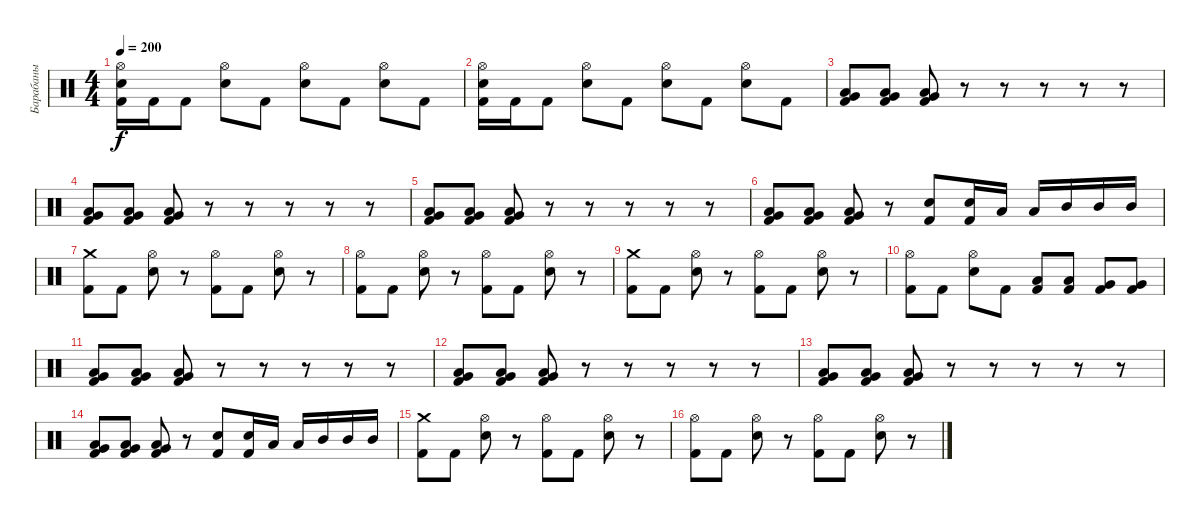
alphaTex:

\track ("Барабаны" "Барабаны") {instrument percussion}
\staff {score}
\articulation defaults
\ts (4 4)
\tempo 200
\clef neutral
\ks c
("Hi-Hat (open)" "Electric Snare (hit)" "Kick (hit) 2").16{dy f} "Kick (hit) 2".16 "Kick (hit) 2".8 ("Hi-Hat (open)" "Electric Snare (hit)").8 "Kick (hit) 2".8 ("Hi-Hat (open)" "Electric Snare (hit)").8 "Kick (hit) 2".8 ("Hi-Hat (open)" "Electric Snare (hit)").8 "Kick (hit) 2".8 |
("Hi-Hat (open)" "Electric Snare (hit)" "Kick (hit) 2").16 "Kick (hit) 2".16 "Kick (hit) 2".8 ("Hi-Hat (open)" "Electric Snare (hit)").8 "Kick (hit) 2".8 ("Hi-Hat (open)" "Electric Snare (hit)").8 "Kick (hit) 2".8 ("Hi-Hat (open)" "Electric Snare (hit)").8 "Kick (hit) 2".8 |
("Very Low Tom (hit)" "Low Tom (hit)" "Kick (hit) 2").8 ("Very Low Tom (hit)" "Low Tom (hit)" "Kick (hit) 2").8 ("Very Low Tom (hit)" "Low Tom (hit)" "Kick (hit) 2").8 r.8 r.8 r.8 r.8 r.8 |
("Very Low Tom (hit)" "Low Tom (hit)" "Kick (hit) 2").8 ("Very Low Tom (hit)" "Low Tom (hit)" "Kick (hit) 2").8 ("Very Low Tom (hit)" "Low Tom (hit)" "Kick (hit) 2").8 r.8 r.8 r.8 r.8 r.8 |
("Very Low Tom (hit)" "Low Tom (hit)" "Kick (hit) 2").8 ("Very Low Tom (hit)" "Low Tom (hit)" "Kick (hit) 2").8 ("Very Low Tom (hit)" "Low Tom (hit)" "Kick (hit) 2").8 r.8 r.8 r.8 r.8 r.8 |
("Very Low Tom (hit)" "Low Tom (hit)" "Kick (hit) 2").8 ("Very Low Tom (hit)" "Low Tom (hit)" "Kick (hit) 2").8 ("Very Low Tom (hit)" "Low Tom (hit)" "Kick (hit) 2").8 r.8 ("Electric Snare (hit)" "Kick (hit) 2").8 ("Electric Snare (hit)" "Kick (hit) 2").16 "Low Tom (hit)".16 "Low Tom (hit)".16 "Mid Tom (hit)".16 "Mid Tom (hit)".16 "Mid Tom (hit)".16 |
("Crash medium (hit)" "Kick (hit) 2").8 "Kick (hit) 2".8 ("Hi-Hat (open)" "Electric Snare (hit)").8 r.8 ("Hi-Hat (open)" "Kick (hit) 2").8 "Kick (hit) 2".8 ("Hi-Hat (open)" "Electric Snare (hit)").8 r.8 |
("Hi-Hat (open)" "Kick (hit) 2").8 "Kick (hit) 2".8 ("Hi-Hat (open)" "Electric Snare (hit)").8 r.8 ("Hi-Hat (open)" "Kick (hit) 2").8 "Kick (hit) 2".8 ("Hi-Hat (open)" "Electric Snare (hit)").8 r.8 |
("Crash medium (hit)" "Kick (hit) 2").8 "Kick (hit) 2".8 ("Hi-Hat (open)" "Electric Snare (hit)").8 r.8 ("Hi-Hat (open)" "Kick (hit) 2").8 "Kick (hit) 2".8 ("Hi-Hat (open)" "Electric Snare (hit)").8 r.8 |
("Hi-Hat (open)" "Kick (hit) 2").8 "Kick (hit) 2".8 ("Hi-Hat (open)" "Electric Snare (hit)").8 "Kick (hit) 2".8 ("Low Tom (hit)" "Kick (hit) 2").8 ("Low Tom (hit)" "Kick (hit) 2").8 ("Very Low Tom (hit)" "Kick (hit) 2").8 ("Very Low Tom (hit)" "Kick (hit) 2").8 |
("Very Low Tom (hit)" "Low Tom (hit)" "Kick (hit) 2").8 ("Very Low Tom (hit)" "Low Tom (hit)" "Kick (hit) 2").8 ("Very Low Tom (hit)" "Low Tom (hit)" "Kick (hit) 2").8 r.8 r.8 r.8 r.8 r.8 |
("Very Low Tom (hit)" "Low Tom (hit)" "Kick (hit) 2").8 ("Very Low Tom (hit)" "Low Tom (hit)" "Kick (hit) 2").8 ("Very Low Tom (hit)" "Low Tom (hit)" "Kick (hit) 2").8 r.8 r.8 r.8 r.8 r.8 |
("Very Low Tom (hit)" "Low Tom (hit)" "Kick (hit) 2").8 ("Very Low Tom (hit)" "Low Tom (hit)" "Kick (hit) 2").8 ("Very Low Tom (hit)" "Low Tom (hit)" "Kick (hit) 2").8 r.8 r.8 r.8 r.8 r.8 |
("Very Low Tom (hit)" "Low Tom (hit)" "Kick (hit) 2").8 ("Very Low Tom (hit)" "Low Tom (hit)" "Kick (hit) 2").8 ("Very Low Tom (hit)" "Low Tom (hit)" "Kick (hit) 2").8 r.8 ("Electric Snare (hit)" "Kick (hit) 2").8 ("Electric Snare (hit)" "Kick (hit) 2").16 "Low Tom (hit)".16 "Low Tom (hit)".16 "Mid Tom (hit)".16 "Mid Tom (hit)".16 "Mid Tom (hit)".16 |
("Crash medium (hit)" "Kick (hit) 2").8 "Kick (hit) 2".8 ("Hi-Hat (open)" "Electric Snare (hit)").8 r.8 ("Hi-Hat (open)" "Kick (hit) 2").8 "Kick (hit) 2".8 ("Hi-Hat (open)" "Electric Snare (hit)").8 r.8 |
("Hi-Hat (open)" "Kick (hit) 2").8 "Kick (hit) 2".8 ("Hi-Hat (open)" "Electric Snare (hit)").8 r.8 ("Hi-Hat (open)" "Kick (hit) 2").8 "Kick (hit) 2".8 ("Hi-Hat (open)" "Electric Snare (hit)").8 r.8
